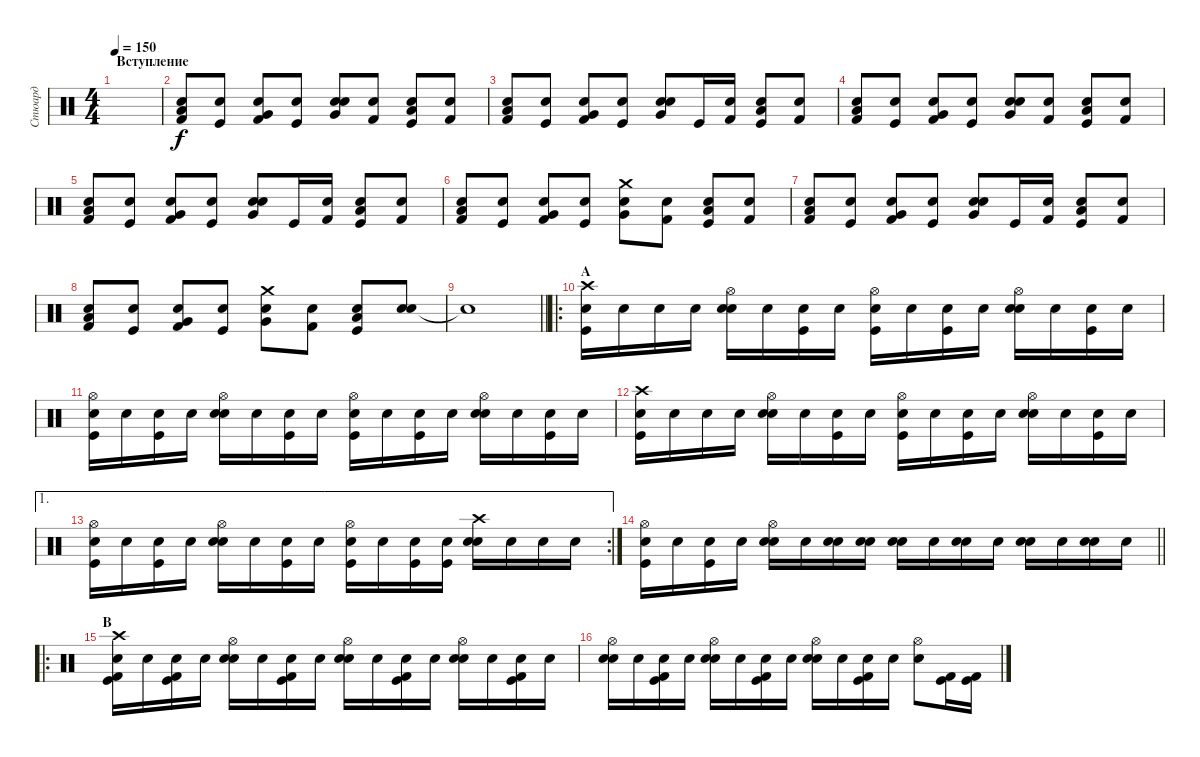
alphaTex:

\track ("Стюард" "Стюард") {instrument percussion}
\staff {score}
\articulation defaults
\ts (4 4)
\section ("" "Вступление")
\tempo 150
\clef neutral
\ks c
|
("Low Tom (hit)" "Kick (hit) 2" "Snare (hit)"{x}).8 ("Kick (hit)" "Snare (hit)"{x}).8 ("Very Low Tom (hit)" "Kick (hit) 2" "Snare (hit)"{x}).8 ("Kick (hit)" "Snare (hit)"{x}).8 ("Very Low Tom (hit)" "Snare (hit) 2" "Snare (hit)"{x}).8 ("Kick (hit) 2" "Snare (hit)"{x}).8 ("Low Tom (hit)" "Kick (hit)" "Snare (hit)"{x}).8 ("Kick (hit) 2" "Snare (hit)"{x}).8 |
("Low Tom (hit)" "Kick (hit) 2" "Snare (hit)"{x}).8 ("Kick (hit)" "Snare (hit)"{x}).8 ("Very Low Tom (hit)" "Kick (hit) 2" "Snare (hit)"{x}).8 ("Kick (hit)" "Snare (hit)"{x}).8 ("Very Low Tom (hit)" "Snare (hit) 2" "Snare (hit)"{x}).8 "Kick (hit)".16 ("Kick (hit) 2" "Snare (hit)"{x}).16 ("Low Tom (hit)" "Kick (hit)" "Snare (hit)"{x}).8 ("Kick (hit) 2" "Snare (hit)"{x}).8 |
("Low Tom (hit)" "Kick (hit) 2" "Snare (hit)"{x}).8 ("Kick (hit)" "Snare (hit)"{x}).8 ("Very Low Tom (hit)" "Kick (hit) 2" "Snare (hit)"{x}).8 ("Kick (hit)" "Snare (hit)"{x}).8 ("Very Low Tom (hit)" "Snare (hit) 2" "Snare (hit)"{x}).8 ("Kick (hit) 2" "Snare (hit)"{x}).8 ("Low Tom (hit)" "Kick (hit)" "Snare (hit)"{x}).8 ("Kick (hit) 2" "Snare (hit)"{x}).8 |
("Low Tom (hit)" "Kick (hit) 2" "Snare (hit)"{x}).8 ("Kick (hit)" "Snare (hit)"{x}).8 ("Very Low Tom (hit)" "Kick (hit) 2" "Snare (hit)"{x}).8 ("Kick (hit)" "Snare (hit)"{x}).8 ("Very Low Tom (hit)" "Snare (hit) 2" "Snare (hit)"{x}).8 "Kick (hit)".16 ("Kick (hit) 2" "Snare (hit)"{x}).16 ("Low Tom (hit)" "Kick (hit)" "Snare (hit)"{x}).8 ("Kick (hit) 2" "Snare (hit)"{x}).8 |
("Low Tom (hit)" "Kick (hit) 2" "Snare (hit)"{x}).8 ("Kick (hit)" "Snare (hit)"{x}).8 ("Very Low Tom (hit)" "Kick (hit) 2" "Snare (hit)"{x}).8 ("Kick (hit)" "Snare (hit)"{x}).8 ("Very Low Tom (hit)" "Snare (hit) 2" "Crash medium (hit)").8 ("Kick (hit) 2" "Snare (hit)"{x}).8 ("Low Tom (hit)" "Kick (hit)" "Snare (hit)"{x}).8 ("Kick (hit) 2" "Snare (hit)"{x}).8 |
("Low Tom (hit)" "Kick (hit) 2" "Snare (hit)"{x}).8 ("Kick (hit)" "Snare (hit)"{x}).8 ("Very Low Tom (hit)" "Kick (hit) 2" "Snare (hit)"{x}).8 ("Kick (hit)" "Snare (hit)"{x}).8 ("Very Low Tom (hit)" "Snare (hit) 2" "Snare (hit)"{x}).8 "Kick (hit)".16 ("Kick (hit) 2" "Snare (hit)"{x}).16 ("Low Tom (hit)" "Kick (hit)" "Snare (hit)"{x}).8 ("Kick (hit) 2" "Snare (hit)"{x}).8 |
("Low Tom (hit)" "Kick (hit) 2" "Snare (hit)"{x}).8 ("Kick (hit)" "Snare (hit)"{x}).8 ("Very Low Tom (hit)" "Kick (hit) 2" "Snare (hit)"{x}).8 ("Kick (hit)" "Snare (hit)"{x}).8 ("Very Low Tom (hit)" "Snare (hit) 2" "Crash medium (hit)").8 ("Kick (hit) 2" "Snare (hit)"{x}).8 ("Low Tom (hit)" "Kick (hit)" "Snare (hit)"{x}).8 ("Snare (hit) 2" "Snare (hit)"{x}).8 |
\barLineRight lightlight "Snare (hit)"{t}.1
|
\ro
\section ("" "А")
("Crash high (hit)" "Kick (hit)" "Snare (hit)"{x}).16 "Snare (hit)"{x}.16 "Snare (hit)"{x}.16 "Snare (hit)"{x}.16 ("Hi-Hat (open)" "Snare (hit) 2" "Snare (hit)"{x}).16 "Snare (hit)"{x}.16 ("Kick (hit)" "Snare (hit)"{x}).16 "Snare (hit)"{x}.16 ("Hi-Hat (open)" "Kick (hit)" "Snare (hit)"{x}).16 "Snare (hit)"{x}.16 ("Kick (hit)" "Snare (hit)"{x}).16 "Snare (hit)"{x}.16 ("Hi-Hat (open)" "Snare (hit) 2" "Snare (hit)"{x}).16 "Snare (hit)"{x}.16 ("Kick (hit)" "Snare (hit)"{x}).16 "Snare (hit)"{x}.16 |
("Hi-Hat (open)" "Kick (hit)" "Snare (hit)"{x}).16 "Snare (hit)"{x}.16 ("Kick (hit)" "Snare (hit)"{x}).16 "Snare (hit)"{x}.16 ("Hi-Hat (open)" "Snare (hit) 2" "Snare (hit)"{x}).16 "Snare (hit)"{x}.16 ("Kick (hit)" "Snare (hit)"{x}).16 "Snare (hit)"{x}.16 ("Hi-Hat (open)" "Kick (hit)" "Snare (hit)"{x}).16 "Snare (hit)"{x}.16 ("Kick (hit)" "Snare (hit)"{x}).16 "Snare (hit)"{x}.16 ("Hi-Hat (open)" "Snare (hit) 2" "Snare (hit)"{x}).16 "Snare (hit)"{x}.16 ("Kick (hit)" "Snare (hit)"{x}).16 "Snare (hit)"{x}.16 |
("Crash high (hit)" "Kick (hit)" "Snare (hit)"{x}).16 "Snare (hit)"{x}.16 "Snare (hit)"{x}.16 "Snare (hit)"{x}.16 ("Hi-Hat (open)" "Snare (hit) 2" "Snare (hit)"{x}).16 "Snare (hit)"{x}.16 ("Kick (hit)" "Snare (hit)"{x}).16 "Snare (hit)"{x}.16 ("Hi-Hat (open)" "Kick (hit)" "Snare (hit)"{x}).16 "Snare (hit)"{x}.16 ("Kick (hit)" "Snare (hit)"{x}).16 "Snare (hit)"{x}.16 ("Hi-Hat (open)" "Snare (hit) 2" "Snare (hit)"{x}).16 "Snare (hit)"{x}.16 ("Kick (hit)" "Snare (hit)"{x}).16 "Snare (hit)"{x}.16 |
\ae 1
\rc 2
("Hi-Hat (open)" "Kick (hit)" "Snare (hit)"{x}).16 "Snare (hit)"{x}.16 ("Kick (hit)" "Snare (hit)"{x}).16 "Snare (hit)"{x}.16 ("Hi-Hat (open)" "Snare (hit) 2" "Snare (hit)"{x}).16 "Snare (hit)"{x}.16 ("Kick (hit)" "Snare (hit)"{x}).16 "Snare (hit)"{x}.16 ("Hi-Hat (open)" "Kick (hit)" "Snare (hit)"{x}).16 "Snare (hit)"{x}.16 ("Kick (hit)" "Snare (hit)"{x}).16 ("Kick (hit)" "Snare (hit)"{x}).16 ("Crash high (hit)" "Snare (hit) 2" "Snare (hit)"{x}).16 "Snare (hit)"{x}.16 "Snare (hit)"{x}.16 "Snare (hit)"{x}.16 |
\barLineRight lightlight
("Hi-Hat (open)" "Kick (hit)" "Snare (hit)"{x}).16 "Snare (hit)"{x}.16 ("Kick (hit)" "Snare (hit)"{x}).16 "Snare (hit)"{x}.16 ("Hi-Hat (open)" "Snare (hit) 2" "Snare (hit)"{x}).16 "Snare (hit)"{x}.16 ("Snare (hit) 2" "Snare (hit)"{x}).16 ("Snare (hit) 2" "Snare (hit)"{x}).16 ("Snare (hit) 2" "Snare (hit)"{x}).16 "Snare (hit)"{x}.16 ("Snare (hit) 2" "Snare (hit)"{x}).16 "Snare (hit)"{x}.16 ("Snare (hit) 2" "Snare (hit)"{x}).16 "Snare (hit)"{x}.16 ("Snare (hit) 2" "Snare (hit)"{x}).16 "Snare (hit)"{x}.16 |
\ro
\section ("" "B")
("Crash high (hit)" "Kick (hit) 2" "Kick (hit)" "Snare (hit)"{x}).16 "Snare (hit)"{x}.16 ("Kick (hit) 2" "Kick (hit)" "Snare (hit)"{x}).16 "Snare (hit)"{x}.16 ("Hi-Hat (open)" "Snare (hit) 2" "Snare (hit)"{x}).16 "Snare (hit)"{x}.16 ("Kick (hit) 2" "Kick (hit)" "Snare (hit)"{x}).16 "Snare (hit)"{x}.16 ("Hi-Hat (open)" "Snare (hit) 2" "Snare (hit)"{x}).16 "Snare (hit)"{x}.16 ("Kick (hit) 2" "Kick (hit)" "Snare (hit)"{x}).16 "Snare (hit)"{x}.16 ("Hi-Hat (open)" "Snare (hit) 2" "Snare (hit)"{x}).16 "Snare (hit)"{x}.16 ("Kick (hit) 2" "Kick (hit)" "Snare (hit)"{x}).16 "Snare (hit)"{x}.16 |
("Hi-Hat (open)" "Snare (hit) 2" "Snare (hit)"{x}).16 "Snare (hit)"{x}.16 ("Kick (hit) 2" "Kick (hit)" "Snare (hit)"{x}).16 "Snare (hit)"{x}.16 ("Hi-Hat (open)" "Snare (hit) 2" "Snare (hit)"{x}).16 "Snare (hit)"{x}.16 ("Kick (hit) 2" "Kick (hit)" "Snare (hit)"{x}).16 "Snare (hit)"{x}.16 ("Hi-Hat (open)" "Snare (hit) 2" "Snare (hit)"{x}).16 "Snare (hit)"{x}.16 ("Kick (hit) 2" "Kick (hit)" "Snare (hit)"{x}).16 "Snare (hit)"{x}.16 ("Hi-Hat (open)" "Snare (hit) 2").8 ("Kick (hit) 2" "Kick (hit)").16 ("Kick (hit) 2" "Kick (hit)").16
